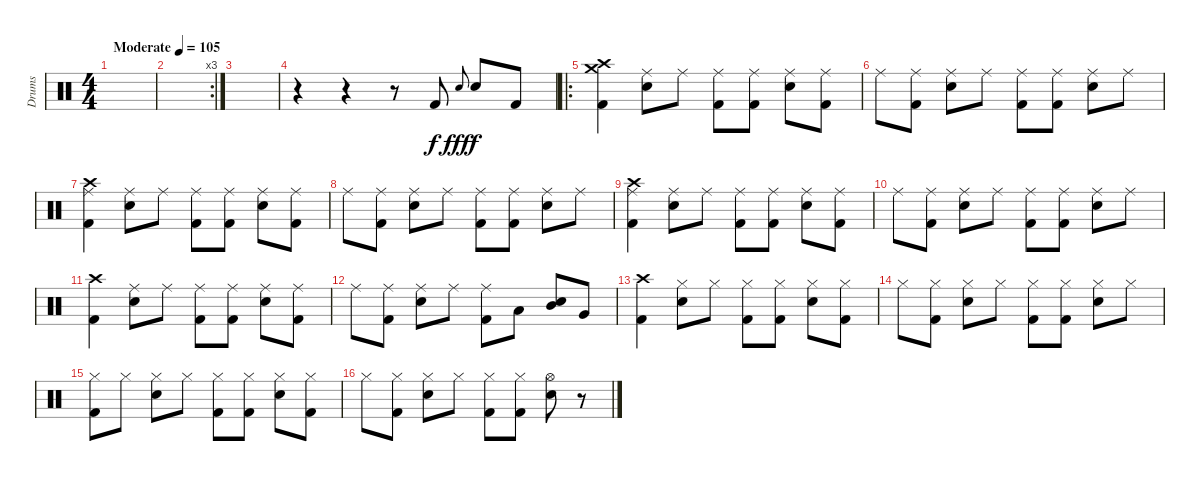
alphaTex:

\track ("Drums" "Drums") {instrument percussion}
\staff {score}
\articulation defaults
\ts (4 4)
\tempo (105 "Moderate")
\clef neutral
\ks c
|
\rc 3
|
|
r.4 r.4 r.8 "Kick (hit) 2".8 "Electric Snare (hit)".8{gr onbeat dy fff} "Electric Snare (hit)".8{dy f} "Kick (hit) 2".8 |
\ro
("Crash medium (hit)" "Crash high (hit)" "Kick (hit) 2").4 ("Ride (middle)" "Electric Snare (hit)").8 "Ride (middle)".8 ("Ride (middle)" "Kick (hit) 2").8 ("Ride (middle)" "Kick (hit) 2").8 ("Ride (middle)" "Electric Snare (hit)").8 ("Ride (middle)" "Kick (hit) 2").8 |
"Ride (middle)".8 ("Ride (middle)" "Kick (hit) 2").8 ("Ride (middle)" "Electric Snare (hit)").8 "Ride (middle)".8 ("Ride (middle)" "Kick (hit) 2").8 ("Ride (middle)" "Kick (hit) 2").8 ("Ride (middle)" "Electric Snare (hit)").8 "Ride (middle)".8 |
("Ride (middle)" "Crash high (hit)" "Kick (hit) 2").4 ("Ride (middle)" "Electric Snare (hit)").8 "Ride (middle)".8 ("Ride (middle)" "Kick (hit) 2").8 ("Ride (middle)" "Kick (hit) 2").8 ("Ride (middle)" "Electric Snare (hit)").8 ("Ride (middle)" "Kick (hit) 2").8 |
"Ride (middle)".8 ("Ride (middle)" "Kick (hit) 2").8 ("Ride (middle)" "Electric Snare (hit)").8 "Ride (middle)".8 ("Ride (middle)" "Kick (hit) 2").8 ("Ride (middle)" "Kick (hit) 2").8 ("Ride (middle)" "Electric Snare (hit)").8 "Ride (middle)".8 |
("Ride (middle)" "Crash high (hit)" "Kick (hit) 2").4 ("Ride (middle)" "Electric Snare (hit)").8 "Ride (middle)".8 ("Ride (middle)" "Kick (hit) 2").8 ("Ride (middle)" "Kick (hit) 2").8 ("Ride (middle)" "Electric Snare (hit)").8 ("Ride (middle)" "Kick (hit) 2").8 |
"Ride (middle)".8 ("Ride (middle)" "Kick (hit) 2").8 ("Ride (middle)" "Electric Snare (hit)").8 "Ride (middle)".8 ("Ride (middle)" "Kick (hit) 2").8 ("Ride (middle)" "Kick (hit) 2").8 ("Ride (middle)" "Electric Snare (hit)").8 "Ride (middle)".8 |
("Crash high (hit)" "Kick (hit) 2").4 ("Ride (middle)" "Electric Snare (hit)").8 "Ride (middle)".8 ("Ride (middle)" "Kick (hit) 2").8 ("Ride (middle)" "Kick (hit) 2").8 ("Ride (middle)" "Electric Snare (hit)").8 ("Ride (middle)" "Kick (hit) 2").8 |
"Ride (middle)".8 ("Ride (middle)" "Kick (hit) 2").8 ("Ride (middle)" "Electric Snare (hit)").8 "Ride (middle)".8 ("Ride (middle)" "Kick (hit) 2").8 "Low Tom (hit)".8 ("Mid Tom (hit)" "Electric Snare (hit)").8 "Very Low Tom (hit)".8 |
("Crash high (hit)" "Kick (hit) 2").4 ("Hi-Hat (closed)" "Electric Snare (hit)").8 "Hi-Hat (closed)".8 ("Hi-Hat (closed)" "Kick (hit) 2").8 ("Hi-Hat (closed)" "Kick (hit) 2").8 ("Hi-Hat (closed)" "Electric Snare (hit)").8 ("Hi-Hat (closed)" "Kick (hit) 2").8 |
"Hi-Hat (closed)".8 ("Hi-Hat (closed)" "Kick (hit) 2").8 ("Hi-Hat (closed)" "Electric Snare (hit)").8 "Hi-Hat (closed)".8 ("Hi-Hat (closed)" "Kick (hit) 2").8 ("Hi-Hat (closed)" "Kick (hit) 2").8 ("Hi-Hat (closed)" "Electric Snare (hit)").8 "Hi-Hat (closed)".8 |
("Hi-Hat (closed)" "Kick (hit) 2").8 "Hi-Hat (closed)".8 ("Hi-Hat (closed)" "Electric Snare (hit)").8 "Hi-Hat (closed)".8 ("Hi-Hat (closed)" "Kick (hit) 2").8 ("Hi-Hat (closed)" "Kick (hit) 2").8 ("Hi-Hat (closed)" "Electric Snare (hit)").8 ("Hi-Hat (closed)" "Kick (hit) 2").8 |
"Hi-Hat (closed)".8 ("Hi-Hat (closed)" "Kick (hit) 2").8 ("Hi-Hat (closed)" "Electric Snare (hit)").8 "Hi-Hat (closed)".8 ("Hi-Hat (closed)" "Kick (hit) 2").8 ("Hi-Hat (closed)" "Kick (hit) 2").8 ("Hi-Hat (open)" "Electric Snare (hit)").8 r.8
